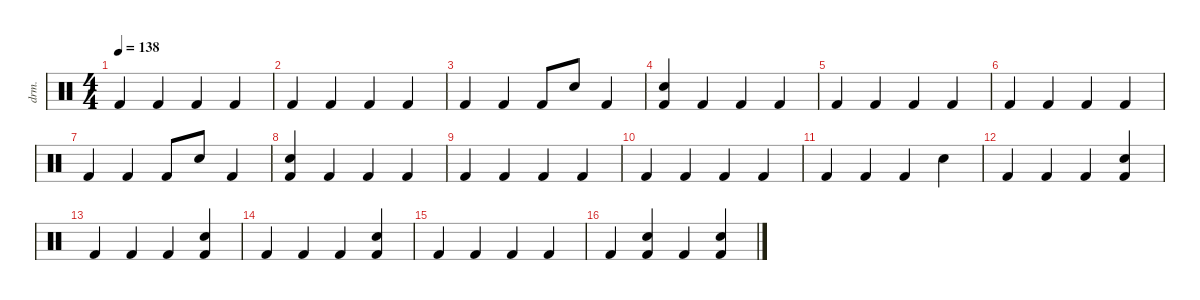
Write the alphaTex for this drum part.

\defaultSystemsLayout 4
\hideDynamics
\bracketExtendMode nobrackets
\otherSystemsTrackNameOrientation horizontal
\track ("Drumkit" "drm.") {instrument percussion bank 128}
\staff {score}
\articulation defaults
\ts (4 4)
\tempo 138
\clef neutral
\ks c "Kick (hit) 2".4{dy mf beam Up} "Kick (hit) 2".4{beam Up} "Kick (hit) 2".4{beam Up} "Kick (hit) 2".4{beam Up}
|
"Kick (hit) 2".4{beam Up} "Kick (hit) 2".4{beam Up} "Kick (hit) 2".4{beam Up} "Kick (hit) 2".4{beam Up} |
"Kick (hit) 2".4{beam Up} "Kick (hit) 2".4{beam Up} "Kick (hit) 2".8{beam Up} "Snare (hit) 2".8{beam Up} "Kick (hit) 2".4{beam Up} |
("Kick (hit) 2" "Snare (hit) 2").4{beam Up} "Kick (hit) 2".4{beam Up} "Kick (hit) 2".4{beam Up} "Kick (hit) 2".4{beam Up} |
"Kick (hit) 2".4{beam Up} "Kick (hit) 2".4{beam Up} "Kick (hit) 2".4{beam Up} "Kick (hit) 2".4{beam Up} |
"Kick (hit) 2".4{beam Up} "Kick (hit) 2".4{beam Up} "Kick (hit) 2".4{beam Up} "Kick (hit) 2".4{beam Up} |
"Kick (hit) 2".4{beam Up} "Kick (hit) 2".4{beam Up} "Kick (hit) 2".8{beam Up} "Snare (hit) 2".8{beam Up} "Kick (hit) 2".4{beam Up} |
("Kick (hit) 2" "Snare (hit) 2").4{beam Up} "Kick (hit) 2".4{beam Up} "Kick (hit) 2".4{beam Up} "Kick (hit) 2".4{beam Up} |
"Kick (hit) 2".4{beam Up} "Kick (hit) 2".4{beam Up} "Kick (hit) 2".4{beam Up} "Kick (hit) 2".4{beam Up} |
"Kick (hit) 2".4{beam Up} "Kick (hit) 2".4{beam Up} "Kick (hit) 2".4{beam Up} "Kick (hit) 2".4{beam Up} |
"Kick (hit) 2".4{beam Up} "Kick (hit) 2".4{beam Up} "Kick (hit) 2".4{beam Up} "Snare (hit) 2".4{beam Down} |
"Kick (hit) 2".4{beam Up} "Kick (hit) 2".4{beam Up} "Kick (hit) 2".4{beam Up} ("Kick (hit) 2" "Snare (hit) 2").4{beam Up} |
"Kick (hit) 2".4{beam Up} "Kick (hit) 2".4{beam Up} "Kick (hit) 2".4{beam Up} ("Kick (hit) 2" "Snare (hit) 2").4{beam Up} |
"Kick (hit) 2".4{beam Up} "Kick (hit) 2".4{beam Up} "Kick (hit) 2".4{beam Up} ("Kick (hit) 2" "Snare (hit) 2").4{beam Up} |
"Kick (hit) 2".4{beam Up} "Kick (hit) 2".4{beam Up} "Kick (hit) 2".4{beam Up} "Kick (hit) 2".4{beam Up} |
"Kick (hit) 2".4{beam Up} ("Kick (hit) 2" "Snare (hit) 2").4{beam Up} "Kick (hit) 2".4{beam Up} ("Kick (hit) 2" "Snare (hit) 2").4{beam Up}
